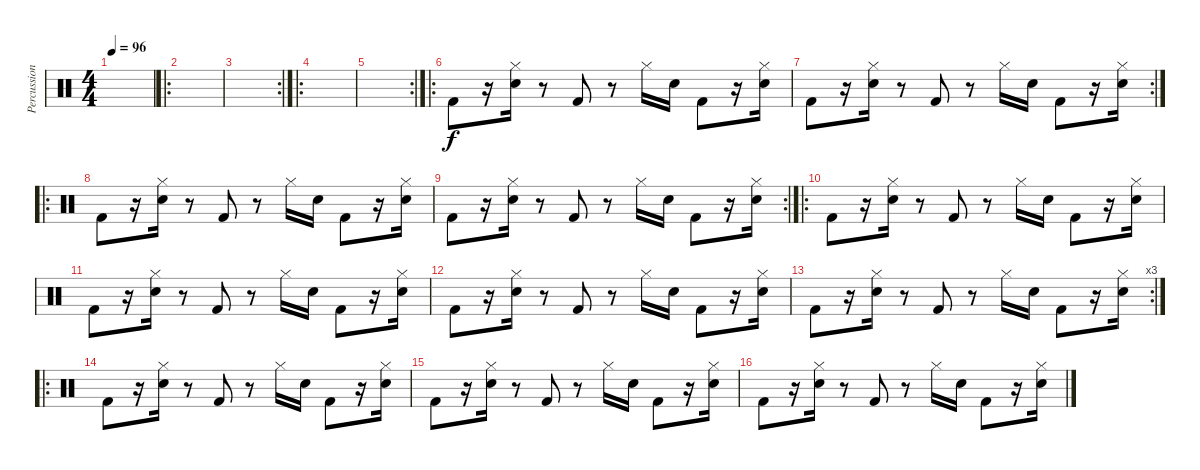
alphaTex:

\track ("Percussion" "Percussion") {instrument percussion}
\staff {score}
\articulation defaults
\ts (4 4)
\tempo 96
\clef neutral
\ks c
|
\ro
|
\rc 2
|
\ro
|
\rc 2
|
\ro "Kick (hit) 2".8
r.16 ("Hi-Hat (closed)" "Snare (hit) 2").16 r.8 "Kick (hit) 2".8 r.8 "Hi-Hat (closed)".16 "Snare (hit) 2".16 "Kick (hit) 2".8 r.16 ("Hi-Hat (closed)" "Snare (hit) 2").16 |
\rc 2 "Kick (hit) 2".8
r.16 ("Hi-Hat (closed)" "Snare (hit) 2").16 r.8 "Kick (hit) 2".8 r.8 "Hi-Hat (closed)".16 "Snare (hit) 2".16 "Kick (hit) 2".8 r.16 ("Hi-Hat (closed)" "Snare (hit) 2").16 |
\ro "Kick (hit) 2".8
r.16 ("Hi-Hat (closed)" "Snare (hit) 2").16 r.8 "Kick (hit) 2".8 r.8 "Hi-Hat (closed)".16 "Snare (hit) 2".16 "Kick (hit) 2".8 r.16 ("Hi-Hat (closed)" "Snare (hit) 2").16 |
\rc 2 "Kick (hit) 2".8
r.16 ("Hi-Hat (closed)" "Snare (hit) 2").16 r.8 "Kick (hit) 2".8 r.8 "Hi-Hat (closed)".16 "Snare (hit) 2".16 "Kick (hit) 2".8 r.16 ("Hi-Hat (closed)" "Snare (hit) 2").16 |
\ro "Kick (hit) 2".8
r.16 ("Hi-Hat (closed)" "Snare (hit) 2").16 r.8 "Kick (hit) 2".8 r.8 "Hi-Hat (closed)".16 "Snare (hit) 2".16 "Kick (hit) 2".8 r.16 ("Hi-Hat (closed)" "Snare (hit) 2").16 |
"Kick (hit) 2".8 r.16 ("Hi-Hat (closed)" "Snare (hit) 2").16 r.8 "Kick (hit) 2".8 r.8 "Hi-Hat (closed)".16 "Snare (hit) 2".16 "Kick (hit) 2".8 r.16 ("Hi-Hat (closed)" "Snare (hit) 2").16 |
"Kick (hit) 2".8 r.16 ("Hi-Hat (closed)" "Snare (hit) 2").16 r.8 "Kick (hit) 2".8 r.8 "Hi-Hat (closed)".16 "Snare (hit) 2".16 "Kick (hit) 2".8 r.16 ("Hi-Hat (closed)" "Snare (hit) 2").16 |
\rc 3 "Kick (hit) 2".8
r.16 ("Hi-Hat (closed)" "Snare (hit) 2").16 r.8 "Kick (hit) 2".8 r.8 "Hi-Hat (closed)".16 "Snare (hit) 2".16 "Kick (hit) 2".8 r.16 ("Hi-Hat (closed)" "Snare (hit) 2").16 |
\ro "Kick (hit) 2".8
r.16 ("Hi-Hat (closed)" "Snare (hit) 2").16 r.8 "Kick (hit) 2".8 r.8 "Hi-Hat (closed)".16 "Snare (hit) 2".16 "Kick (hit) 2".8 r.16 ("Hi-Hat (closed)" "Snare (hit) 2").16 |
"Kick (hit) 2".8 r.16 ("Hi-Hat (closed)" "Snare (hit) 2").16 r.8 "Kick (hit) 2".8 r.8 "Hi-Hat (closed)".16 "Snare (hit) 2".16 "Kick (hit) 2".8 r.16 ("Hi-Hat (closed)" "Snare (hit) 2").16 |
"Kick (hit) 2".8 r.16 ("Hi-Hat (closed)" "Snare (hit) 2").16 r.8 "Kick (hit) 2".8 r.8 "Hi-Hat (closed)".16 "Snare (hit) 2".16 "Kick (hit) 2".8 r.16 ("Hi-Hat (closed)" "Snare (hit) 2").16
